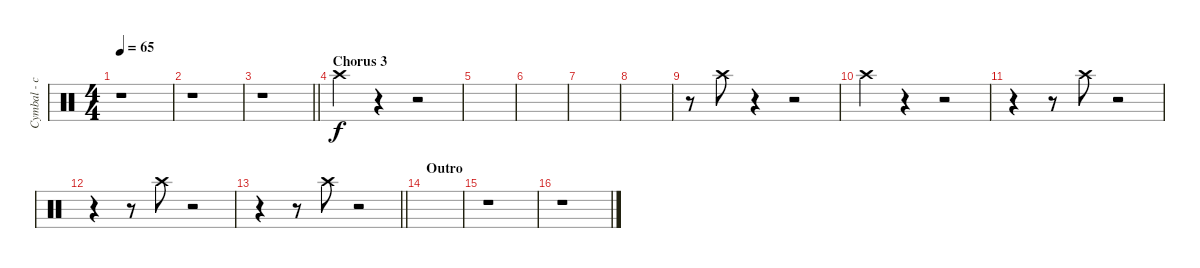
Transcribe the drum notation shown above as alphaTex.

\track ("Cymbal - crash - center" "Cymbal - c") {instrument percussion}
\staff {score}
\articulation defaults
\ts (4 4)
\tempo 65
\clef neutral
\ks c
r.1{dy f} |
r.1 |
\barLineRight lightlight
r.1 |
\section ("" "Chorus 3")
"Crash high (hit)".4 r.4 r.2 |
|
|
|
|
r.8 "Crash high (hit)".8 r.4 r.2 |
"Crash high (hit)".4 r.4 r.2 |
r.4{beam merge} r.8 "Crash high (hit)".8 r.2 |
r.4{beam merge} r.8 "Crash high (hit)".8 r.2 |
\barLineRight lightlight
r.4{beam merge} r.8 "Crash high (hit)".8 r.2 |
\section ("" "Outro")
|
r.1 |
r.1
